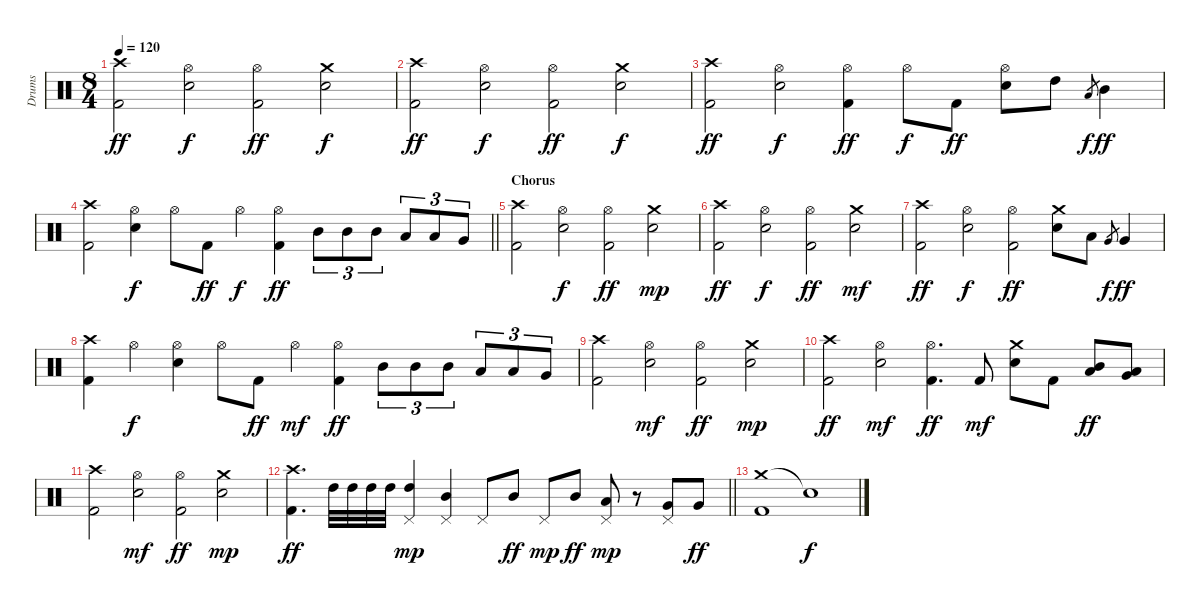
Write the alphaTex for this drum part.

\track ("Drums" "Drums") {instrument percussion}
\staff {score}
\articulation defaults
\ts (8 4)
\tempo 120
\clef neutral
\ks c
("Crash high (hit)" "Kick (hit) 2").2{dy ff} ("Hi-Hat (open)" "Electric Snare (hit)").2{dy f} ("Hi-Hat (open)" "Kick (hit) 2").2{dy ff} ("Crash medium (hit)" "Electric Snare (hit)").2{dy f} |
("Crash high (hit)" "Kick (hit) 2").2{dy ff} ("Hi-Hat (open)" "Electric Snare (hit)").2{dy f} ("Hi-Hat (open)" "Kick (hit) 2").2{dy ff} ("Crash medium (hit)" "Electric Snare (hit)").2{dy f} |
("Crash high (hit)" "Kick (hit) 2").2{dy ff} ("Hi-Hat (open)" "Electric Snare (hit)").2{dy f} ("Hi-Hat (open)" "Kick (hit) 2").4{dy ff} "Hi-Hat (open)".8{dy f} "Kick (hit) 2".8{dy ff} ("Hi-Hat (open)" "Electric Snare (hit)").8 "High Tom (hit)".8 "Low Tom (hit)".8{gr dy f} "Mid Tom (hit)".4{dy ff} |
\barLineRight lightlight
("Crash high (hit)" "Kick (hit) 2").2 ("Hi-Hat (open)" "Electric Snare (hit)").4{dy f} "Hi-Hat (open)".8 "Kick (hit) 2".8{dy ff} "Hi-Hat (open)".4{dy f} ("Hi-Hat (open)" "Kick (hit) 2").4{dy ff} "Mid Tom (hit)".8{tu (3 2)} "Mid Tom (hit)".8{tu (3 2)} "Mid Tom (hit)".8{tu (3 2)} "Low Tom (hit)".8{tu (3 2)} "Low Tom (hit)".8{tu (3 2)} "Very Low Tom (hit)".8{tu (3 2)} |
\section ("" "Chorus")
("Crash high (hit)" "Kick (hit) 2").2 ("Hi-Hat (open)" "Electric Snare (hit)").2{dy f} ("Hi-Hat (open)" "Kick (hit) 2").2{dy ff} ("Crash medium (hit)" "Electric Snare (hit)").2{dy mp} |
("Crash high (hit)" "Kick (hit) 2").2{dy ff} ("Hi-Hat (open)" "Electric Snare (hit)").2{dy f} ("Hi-Hat (open)" "Kick (hit) 2").2{dy ff} ("Crash medium (hit)" "Electric Snare (hit)").2{dy mf} |
("Crash high (hit)" "Kick (hit) 2").2{dy ff} ("Hi-Hat (open)" "Electric Snare (hit)").2{dy f} ("Hi-Hat (open)" "Kick (hit) 2").2{dy ff} ("Crash medium (hit)" "Electric Snare (hit)").8 "Low Tom (hit)".8 "Very Low Tom (hit)".8{gr dy f} "Very Low Tom (hit)".4{dy ff} |
("Crash high (hit)" "Kick (hit) 2").4 "Hi-Hat (open)".4{dy f} ("Hi-Hat (open)" "Electric Snare (hit)").4 "Hi-Hat (open)".8 "Kick (hit) 2".8{dy ff} "Hi-Hat (open)".4{dy mf} ("Hi-Hat (open)" "Kick (hit) 2").4{dy ff} "Mid Tom (hit)".8{tu (3 2)} "Mid Tom (hit)".8{tu (3 2)} "Mid Tom (hit)".8{tu (3 2)} "Low Tom (hit)".8{tu (3 2)} "Low Tom (hit)".8{tu (3 2)} "Very Low Tom (hit)".8{tu (3 2)} |
("Crash high (hit)" "Kick (hit) 2").2 ("Hi-Hat (open)" "Electric Snare (hit)").2{dy mf} ("Hi-Hat (open)" "Kick (hit) 2").2{dy ff} ("Crash medium (hit)" "Electric Snare (hit)").2{dy mp} |
("Crash high (hit)" "Kick (hit) 2").2{dy ff} ("Hi-Hat (open)" "Electric Snare (hit)").2{dy mf} ("Hi-Hat (open)" "Kick (hit) 2").4{d dy ff} "Kick (hit) 2".8{dy mf} ("Crash medium (hit)" "Electric Snare (hit)").8 "Kick (hit) 2".8 ("Mid Tom (hit)" "Low Tom (hit)").8{dy ff} ("Low Tom (hit)" "Very Low Tom (hit)").8 |
("Crash high (hit)" "Kick (hit) 2").2 ("Hi-Hat (open)" "Electric Snare (hit)").2{dy mf} ("Hi-Hat (open)" "Kick (hit) 2").2{dy ff} ("Crash medium (hit)" "Electric Snare (hit)").2{dy mp} |
\barLineRight lightlight
("Crash high (hit)" "Kick (hit) 2").4{d dy ff} "High Tom (hit)".32 "High Tom (hit)".32 "High Tom (hit)".32 "High Tom (hit)".32 ("High Tom (hit)" "Pedal Hi-Hat (hit)").4{dy mp} ("Mid Tom (hit)" "Pedal Hi-Hat (hit)").4 "Pedal Hi-Hat (hit)".8 "Mid Tom (hit)".8{dy ff} "Pedal Hi-Hat (hit)".8{dy mp} "Mid Tom (hit)".8{dy ff} ("Low Tom (hit)" "Pedal Hi-Hat (hit)").8{dy mp} r.8 ("Very Low Tom (hit)" "Pedal Hi-Hat (hit)").8 "Very Low Tom (hit)".8{dy ff} |
("Crash medium (hit)" "Kick (hit) 2").1 "Snare (hit)"{t}.1{dy f}
